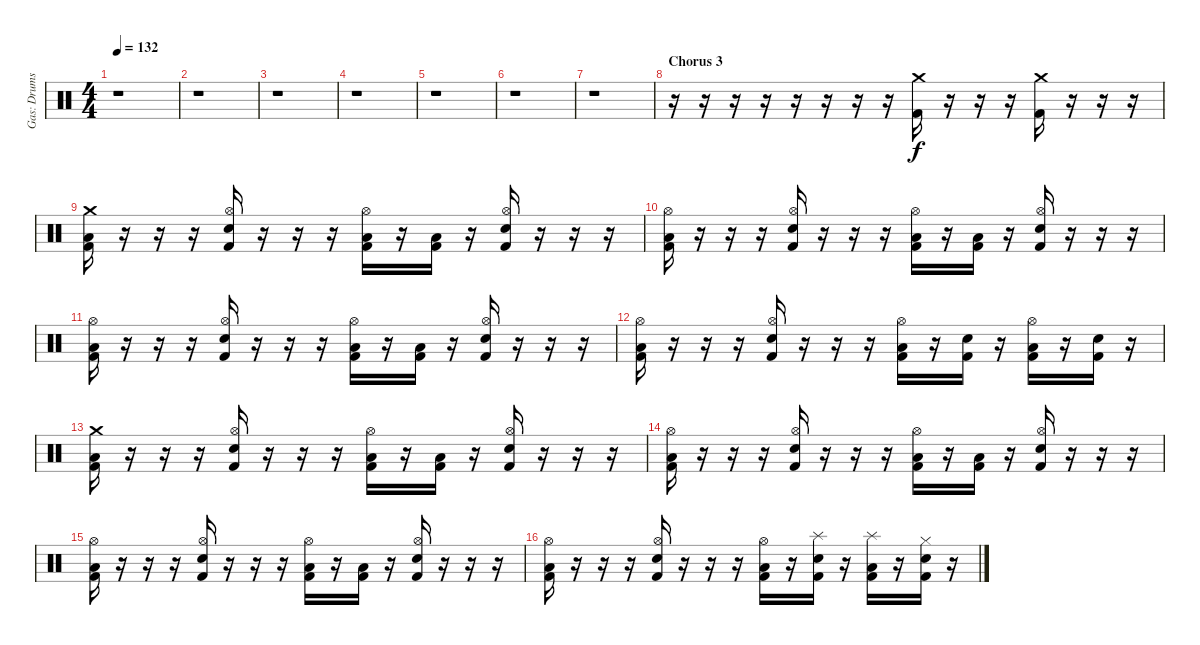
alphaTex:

\track ("Gas: Drums" "Gas: Drums") {instrument percussion}
\staff {score}
\articulation defaults
\ts (4 4)
\tempo 132
\clef neutral
\ks c
r.1{dy f} |
r.1 |
r.1 |
r.1 |
r.1 |
r.1 |
r.1 |
\section ("" "Chorus 3")
r.16 r.16 r.16 r.16 r.16 r.16 r.16 r.16 ("Crash medium (hit)" "Kick (hit) 2").16 r.16 r.16 r.16 ("Crash medium (hit)" "Kick (hit) 2").16 r.16 r.16 r.16 |
("Crash medium (hit)" "Low Tom (hit)" "Kick (hit) 2").16 r.16 r.16 r.16 ("Hi-Hat (open)" "Electric Snare (hit)" "Kick (hit) 2").16 r.16 r.16 r.16 ("Hi-Hat (open)" "Low Tom (hit)" "Kick (hit) 2").16 r.16 ("Low Tom (hit)" "Kick (hit) 2").16 r.16 ("Hi-Hat (open)" "Electric Snare (hit)" "Kick (hit) 2").16 r.16 r.16 r.16 |
("Hi-Hat (open)" "Low Tom (hit)" "Kick (hit) 2").16 r.16 r.16 r.16 ("Hi-Hat (open)" "Electric Snare (hit)" "Kick (hit) 2").16 r.16 r.16 r.16 ("Hi-Hat (open)" "Low Tom (hit)" "Kick (hit) 2").16 r.16 ("Low Tom (hit)" "Kick (hit) 2").16 r.16 ("Hi-Hat (open)" "Electric Snare (hit)" "Kick (hit) 2").16 r.16 r.16 r.16 |
("Hi-Hat (open)" "Low Tom (hit)" "Kick (hit) 2").16 r.16 r.16 r.16 ("Hi-Hat (open)" "Electric Snare (hit)" "Kick (hit) 2").16 r.16 r.16 r.16 ("Hi-Hat (open)" "Low Tom (hit)" "Kick (hit) 2").16 r.16 ("Low Tom (hit)" "Kick (hit) 2").16 r.16 ("Hi-Hat (open)" "Electric Snare (hit)" "Kick (hit) 2").16 r.16 r.16 r.16 |
("Hi-Hat (open)" "Low Tom (hit)" "Kick (hit) 2").16 r.16 r.16 r.16 ("Hi-Hat (open)" "Electric Snare (hit)" "Kick (hit) 2").16 r.16 r.16 r.16 ("Hi-Hat (open)" "Low Tom (hit)" "Kick (hit) 2").16 r.16 ("Electric Snare (hit)" "Kick (hit) 2").16 r.16 ("Hi-Hat (open)" "Low Tom (hit)" "Kick (hit) 2").16 r.16 ("Electric Snare (hit)" "Kick (hit) 2").16 r.16 |
("Crash medium (hit)" "Low Tom (hit)" "Kick (hit) 2").16 r.16 r.16 r.16 ("Hi-Hat (open)" "Electric Snare (hit)" "Kick (hit) 2").16 r.16 r.16 r.16 ("Hi-Hat (open)" "Low Tom (hit)" "Kick (hit) 2").16 r.16 ("Low Tom (hit)" "Kick (hit) 2").16 r.16 ("Hi-Hat (open)" "Electric Snare (hit)" "Kick (hit) 2").16 r.16 r.16 r.16 |
("Hi-Hat (open)" "Low Tom (hit)" "Kick (hit) 2").16 r.16 r.16 r.16 ("Hi-Hat (open)" "Electric Snare (hit)" "Kick (hit) 2").16 r.16 r.16 r.16 ("Hi-Hat (open)" "Low Tom (hit)" "Kick (hit) 2").16 r.16 ("Low Tom (hit)" "Kick (hit) 2").16 r.16 ("Hi-Hat (open)" "Electric Snare (hit)" "Kick (hit) 2").16 r.16 r.16 r.16 |
("Hi-Hat (open)" "Low Tom (hit)" "Kick (hit) 2").16 r.16 r.16 r.16 ("Hi-Hat (open)" "Electric Snare (hit)" "Kick (hit) 2").16 r.16 r.16 r.16 ("Hi-Hat (open)" "Low Tom (hit)" "Kick (hit) 2").16 r.16 ("Low Tom (hit)" "Kick (hit) 2").16 r.16 ("Hi-Hat (open)" "Electric Snare (hit)" "Kick (hit) 2").16 r.16 r.16 r.16 |
("Hi-Hat (open)" "Low Tom (hit)" "Kick (hit) 2").16 r.16 r.16 r.16 ("Hi-Hat (open)" "Electric Snare (hit)" "Kick (hit) 2").16 r.16 r.16 r.16 ("Hi-Hat (open)" "Low Tom (hit)" "Kick (hit) 2").16 r.16 ("Splash (hit)" "Electric Snare (hit)" "Kick (hit) 2").16 r.16 ("Splash (hit)" "Low Tom (hit)" "Kick (hit) 2").16 r.16 ("Hi-Hat (closed)" "Electric Snare (hit)" "Kick (hit) 2").16 r.16
